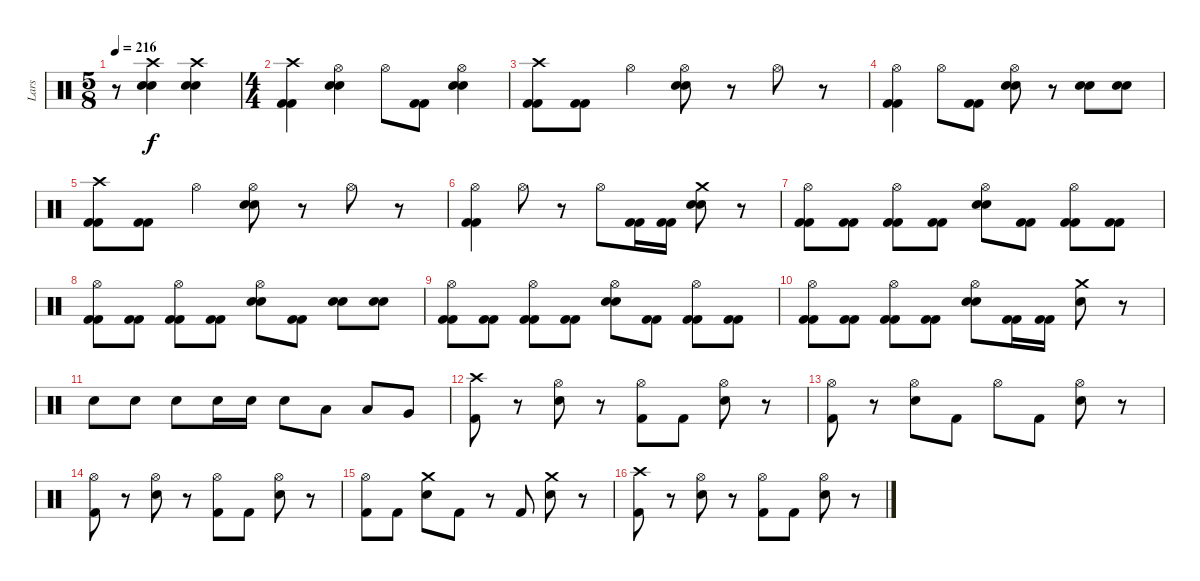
\track ("Lars" "Lars") {instrument percussion}
\staff {score}
\articulation defaults
\ts (5 8)
\tempo 216
\clef neutral
\ks c
r.8{dy f} ("Crash high (hit)" "Electric Snare (hit)" "Electric Snare (hit)").4 ("Crash high (hit)" "Electric Snare (hit)" "Electric Snare (hit)").4 |
\ts (4 4)
("Crash high (hit)" "Kick (hit) 2" "Kick (hit) 2").4 ("Hi-Hat (open)" "Electric Snare (hit)" "Electric Snare (hit)").4 "Hi-Hat (open)".8 ("Kick (hit) 2" "Kick (hit) 2").8 ("Hi-Hat (open)" "Electric Snare (hit)" "Electric Snare (hit)").4 |
("Crash high (hit)" "Kick (hit) 2" "Kick (hit) 2").8{volume 11} ("Kick (hit) 2" "Kick (hit) 2").8 "Hi-Hat (open)".4 ("Hi-Hat (open)" "Electric Snare (hit)" "Electric Snare (hit)").8 r.8 "Hi-Hat (open)".8 r.8 |
("Hi-Hat (open)" "Kick (hit) 2" "Kick (hit) 2").4 "Hi-Hat (open)".8 ("Kick (hit) 2" "Kick (hit) 2").8 ("Hi-Hat (open)" "Electric Snare (hit)" "Electric Snare (hit)").8 r.8 ("Electric Snare (hit)" "Electric Snare (hit)").8 ("Electric Snare (hit)" "Electric Snare (hit)").8 |
("Crash high (hit)" "Kick (hit) 2" "Kick (hit) 2").8 ("Kick (hit) 2" "Kick (hit) 2").8 "Hi-Hat (open)".4 ("Hi-Hat (open)" "Electric Snare (hit)" "Electric Snare (hit)").8 r.8 "Hi-Hat (open)".8 r.8 |
("Hi-Hat (open)" "Kick (hit) 2" "Kick (hit) 2").4 "Hi-Hat (open)".8 r.8 "Hi-Hat (open)".8 ("Kick (hit) 2" "Kick (hit) 2").16 ("Kick (hit) 2" "Kick (hit) 2").16 ("Crash medium (hit)" "Electric Snare (hit)" "Electric Snare (hit)").8 r.8 |
("Hi-Hat (open)" "Kick (hit) 2" "Kick (hit) 2").8 ("Kick (hit) 2" "Kick (hit) 2").8 ("Hi-Hat (open)" "Kick (hit) 2" "Kick (hit) 2").8 ("Kick (hit) 2" "Kick (hit) 2").8 ("Hi-Hat (open)" "Electric Snare (hit)" "Electric Snare (hit)").8 ("Kick (hit) 2" "Kick (hit) 2").8 ("Hi-Hat (open)" "Kick (hit) 2" "Kick (hit) 2").8 ("Kick (hit) 2" "Kick (hit) 2").8 |
("Hi-Hat (open)" "Kick (hit) 2" "Kick (hit) 2").8 ("Kick (hit) 2" "Kick (hit) 2").8 ("Hi-Hat (open)" "Kick (hit) 2" "Kick (hit) 2").8 ("Kick (hit) 2" "Kick (hit) 2").8 ("Hi-Hat (open)" "Electric Snare (hit)" "Electric Snare (hit)").8 ("Kick (hit) 2" "Kick (hit) 2").8 ("Electric Snare (hit)" "Electric Snare (hit)").8 ("Electric Snare (hit)" "Electric Snare (hit)").8 |
("Hi-Hat (open)" "Kick (hit) 2" "Kick (hit) 2").8 ("Kick (hit) 2" "Kick (hit) 2").8 ("Hi-Hat (open)" "Kick (hit) 2" "Kick (hit) 2").8 ("Kick (hit) 2" "Kick (hit) 2").8 ("Hi-Hat (open)" "Electric Snare (hit)" "Electric Snare (hit)").8 ("Kick (hit) 2" "Kick (hit) 2").8 ("Hi-Hat (open)" "Kick (hit) 2" "Kick (hit) 2").8 ("Kick (hit) 2" "Kick (hit) 2").8 |
("Hi-Hat (open)" "Kick (hit) 2" "Kick (hit) 2").8 ("Kick (hit) 2" "Kick (hit) 2").8 ("Hi-Hat (open)" "Kick (hit) 2" "Kick (hit) 2").8 ("Kick (hit) 2" "Kick (hit) 2").8 ("Hi-Hat (open)" "Electric Snare (hit)" "Electric Snare (hit)").8 ("Kick (hit) 2" "Kick (hit) 2").16 ("Kick (hit) 2" "Kick (hit) 2").16 ("Crash medium (hit)" "Snare (hit) 2").8 r.8 |
"Snare (hit) 2".8 "Snare (hit) 2".8 "Snare (hit) 2".8 "Snare (hit) 2".16 "Snare (hit) 2".16 "Snare (hit) 2".8 "Low Tom (hit)".8 "Low Tom (hit)".8 "Very Low Tom (hit)".8 |
("Crash high (hit)" "Kick (hit) 2").8 r.8 ("Hi-Hat (open)" "Snare (hit) 2").8 r.8 ("Hi-Hat (open)" "Kick (hit) 2").8 "Kick (hit) 2".8 ("Hi-Hat (open)" "Snare (hit) 2").8 r.8 |
("Hi-Hat (open)" "Kick (hit) 2").8 r.8 ("Hi-Hat (open)" "Snare (hit) 2").8 "Kick (hit) 2".8 "Hi-Hat (open)".8 "Kick (hit) 2".8 ("Hi-Hat (open)" "Snare (hit) 2").8 r.8 |
("Hi-Hat (open)" "Kick (hit) 2").8 r.8 ("Hi-Hat (open)" "Snare (hit) 2").8 r.8 ("Hi-Hat (open)" "Kick (hit) 2").8 "Kick (hit) 2".8 ("Hi-Hat (open)" "Snare (hit) 2").8 r.8 |
("Hi-Hat (open)" "Kick (hit) 2").8 "Kick (hit) 2".8 ("Crash medium (hit)" "Snare (hit) 2").8 "Kick (hit) 2".8 r.8 "Kick (hit) 2".8 ("Crash medium (hit)" "Snare (hit) 2").8 r.8 |
("Crash high (hit)" "Kick (hit) 2").8 r.8 ("Hi-Hat (open)" "Snare (hit) 2").8 r.8 ("Hi-Hat (open)" "Kick (hit) 2").8 "Kick (hit) 2".8 ("Hi-Hat (open)" "Snare (hit) 2").8 r.8
